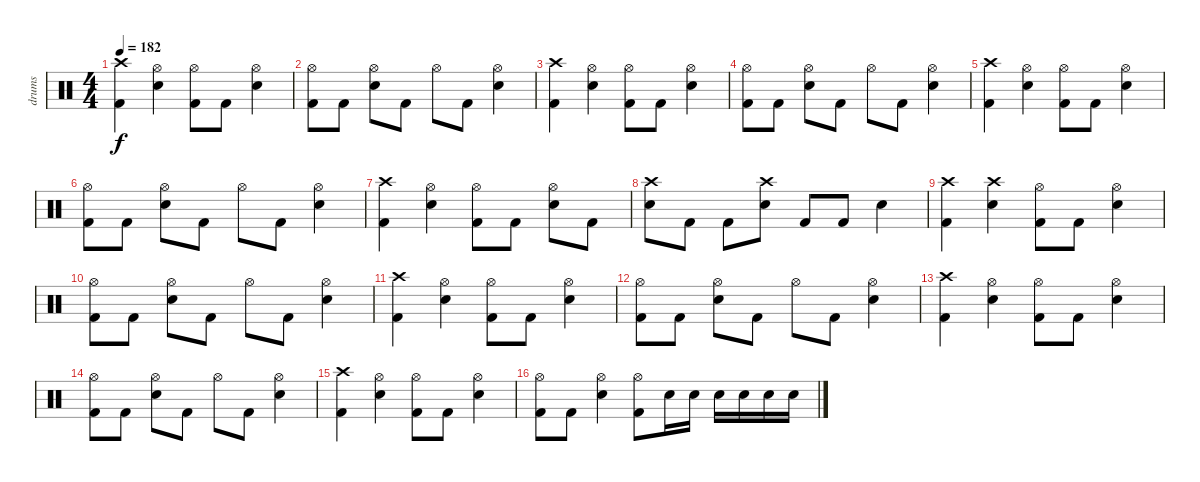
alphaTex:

\track ("drums" "drums") {instrument percussion}
\staff {score}
\articulation defaults
\ts (4 4)
\tempo 182
\clef neutral
\ks c
("Crash high (hit)" "Kick (hit) 2").4{dy f} ("Hi-Hat (open)" "Electric Snare (hit)").4 ("Hi-Hat (open)" "Kick (hit) 2").8 "Kick (hit) 2".8 ("Hi-Hat (open)" "Electric Snare (hit)").4 |
("Hi-Hat (open)" "Kick (hit) 2").8 "Kick (hit) 2".8 ("Hi-Hat (open)" "Electric Snare (hit)").8 "Kick (hit) 2".8 "Hi-Hat (open)".8 "Kick (hit) 2".8 ("Hi-Hat (open)" "Electric Snare (hit)").4 |
("Crash high (hit)" "Kick (hit) 2").4 ("Hi-Hat (open)" "Electric Snare (hit)").4 ("Hi-Hat (open)" "Kick (hit) 2").8 "Kick (hit) 2".8 ("Hi-Hat (open)" "Electric Snare (hit)").4 |
("Hi-Hat (open)" "Kick (hit) 2").8 "Kick (hit) 2".8 ("Hi-Hat (open)" "Electric Snare (hit)").8 "Kick (hit) 2".8 "Hi-Hat (open)".8 "Kick (hit) 2".8 ("Hi-Hat (open)" "Electric Snare (hit)").4 |
("Crash high (hit)" "Kick (hit) 2").4 ("Hi-Hat (open)" "Electric Snare (hit)").4 ("Hi-Hat (open)" "Kick (hit) 2").8 "Kick (hit) 2".8 ("Hi-Hat (open)" "Electric Snare (hit)").4 |
("Hi-Hat (open)" "Kick (hit) 2").8 "Kick (hit) 2".8 ("Hi-Hat (open)" "Electric Snare (hit)").8 "Kick (hit) 2".8 "Hi-Hat (open)".8 "Kick (hit) 2".8 ("Hi-Hat (open)" "Electric Snare (hit)").4 |
("Crash high (hit)" "Kick (hit) 2").4 ("Hi-Hat (open)" "Electric Snare (hit)").4 ("Hi-Hat (open)" "Kick (hit) 2").8 "Kick (hit) 2".8 ("Hi-Hat (open)" "Electric Snare (hit)").8 "Kick (hit) 2".8 |
("Crash high (hit)" "Electric Snare (hit)").8 "Kick (hit) 2".8 "Kick (hit) 2".8 ("Crash high (hit)" "Electric Snare (hit)").8 "Kick (hit) 2".8 "Kick (hit) 2".8 "Electric Snare (hit)".4 |
("Crash high (hit)" "Kick (hit) 2").4 ("Crash high (hit)" "Electric Snare (hit)").4 ("Hi-Hat (open)" "Kick (hit) 2").8 "Kick (hit) 2".8 ("Hi-Hat (open)" "Electric Snare (hit)").4 |
("Hi-Hat (open)" "Kick (hit) 2").8 "Kick (hit) 2".8 ("Hi-Hat (open)" "Electric Snare (hit)").8 "Kick (hit) 2".8 "Hi-Hat (open)".8 "Kick (hit) 2".8 ("Hi-Hat (open)" "Electric Snare (hit)").4 |
("Crash high (hit)" "Kick (hit) 2").4 ("Hi-Hat (open)" "Electric Snare (hit)").4 ("Hi-Hat (open)" "Kick (hit) 2").8 "Kick (hit) 2".8 ("Hi-Hat (open)" "Electric Snare (hit)").4 |
("Hi-Hat (open)" "Kick (hit) 2").8 "Kick (hit) 2".8 ("Hi-Hat (open)" "Electric Snare (hit)").8 "Kick (hit) 2".8 "Hi-Hat (open)".8 "Kick (hit) 2".8 ("Hi-Hat (open)" "Electric Snare (hit)").4 |
("Crash high (hit)" "Kick (hit) 2").4 ("Hi-Hat (open)" "Electric Snare (hit)").4 ("Hi-Hat (open)" "Kick (hit) 2").8 "Kick (hit) 2".8 ("Hi-Hat (open)" "Electric Snare (hit)").4 |
("Hi-Hat (open)" "Kick (hit) 2").8 "Kick (hit) 2".8 ("Hi-Hat (open)" "Electric Snare (hit)").8 "Kick (hit) 2".8 "Hi-Hat (open)".8 "Kick (hit) 2".8 ("Hi-Hat (open)" "Electric Snare (hit)").4 |
("Crash high (hit)" "Kick (hit) 2").4 ("Hi-Hat (open)" "Electric Snare (hit)").4 ("Hi-Hat (open)" "Kick (hit) 2").8 "Kick (hit) 2".8 ("Hi-Hat (open)" "Electric Snare (hit)").4 |
("Hi-Hat (open)" "Kick (hit) 2").8 "Kick (hit) 2".8 ("Hi-Hat (open)" "Electric Snare (hit)").4 ("Hi-Hat (open)" "Kick (hit) 2").8 "Electric Snare (hit)".16 "Electric Snare (hit)".16 "Electric Snare (hit)".16 "Electric Snare (hit)".16 "Electric Snare (hit)".16 "Electric Snare (hit)".16
